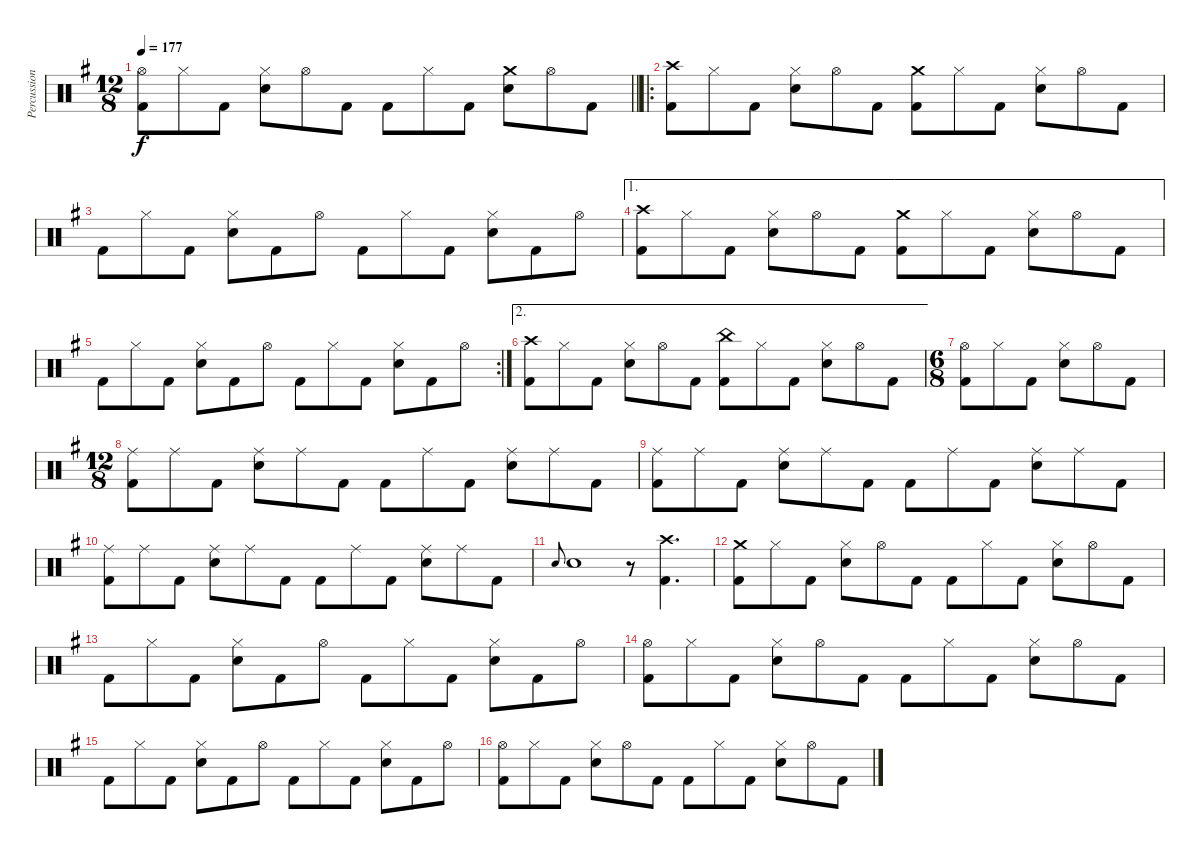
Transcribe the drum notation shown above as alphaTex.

\track ("Percussion" "Percussion") {instrument percussion}
\staff {score}
\articulation defaults
\ts (12 8)
\tempo 177
\clef neutral
\barLineRight lightlight
\ks g
("Hi-Hat (open)" "Kick (hit) 2").8{dy f} "Hi-Hat (closed)".8 "Kick (hit) 2".8 ("Hi-Hat (closed)" "Snare (hit) 2").8 "Hi-Hat (open)".8 "Kick (hit) 2".8 "Kick (hit) 2".8 "Hi-Hat (closed)".8 "Kick (hit) 2".8 ("Crash medium (hit)" "Snare (hit) 2").8 "Hi-Hat (open)".8 "Kick (hit) 2".8 |
\ro
("Crash high (hit)" "Kick (hit) 2").8 "Hi-Hat (closed)".8 "Kick (hit) 2".8 ("Hi-Hat (closed)" "Snare (hit) 2").8 "Hi-Hat (open)".8 "Kick (hit) 2".8 ("Crash medium (hit)" "Kick (hit) 2").8 "Hi-Hat (closed)".8 "Kick (hit) 2".8 ("Hi-Hat (closed)" "Snare (hit) 2").8 "Hi-Hat (open)".8 "Kick (hit) 2".8 |
"Kick (hit) 2".8 "Hi-Hat (closed)".8 "Kick (hit) 2".8 ("Hi-Hat (closed)" "Snare (hit) 2").8 "Kick (hit) 2".8 "Hi-Hat (open)".8 "Kick (hit) 2".8 "Hi-Hat (closed)".8 "Kick (hit) 2".8 ("Hi-Hat (closed)" "Snare (hit) 2").8 "Kick (hit) 2".8 "Hi-Hat (open)".8 |
\ae 1
("Crash high (hit)" "Kick (hit) 2").8 "Hi-Hat (closed)".8 "Kick (hit) 2".8 ("Hi-Hat (closed)" "Snare (hit) 2").8 "Hi-Hat (open)".8 "Kick (hit) 2".8 ("Crash medium (hit)" "Kick (hit) 2").8 "Hi-Hat (closed)".8 "Kick (hit) 2".8 ("Hi-Hat (closed)" "Snare (hit) 2").8 "Hi-Hat (open)".8 "Kick (hit) 2".8 |
\rc 2 "Kick (hit) 2".8 "Hi-Hat (closed)".8 "Kick (hit) 2".8
("Hi-Hat (closed)" "Snare (hit) 2").8 "Kick (hit) 2".8 "Hi-Hat (open)".8 "Kick (hit) 2".8 "Hi-Hat (closed)".8 "Kick (hit) 2".8 ("Hi-Hat (closed)" "Snare (hit) 2").8 "Kick (hit) 2".8 "Hi-Hat (open)".8 |
\ae 2
("Crash high (hit)" "Kick (hit) 2").8 "Hi-Hat (closed)".8 "Kick (hit) 2".8 ("Hi-Hat (closed)" "Snare (hit) 2").8 "Hi-Hat (open)".8 "Kick (hit) 2".8 ("China (hit)" "Kick (hit) 2").8 "Hi-Hat (closed)".8 "Kick (hit) 2".8 ("Hi-Hat (closed)" "Snare (hit) 2").8 "Hi-Hat (open)".8 "Kick (hit) 2".8 |
\ts (6 8)
("Hi-Hat (open)" "Kick (hit) 2").8 "Hi-Hat (closed)".8 "Kick (hit) 2".8 ("Hi-Hat (closed)" "Snare (hit) 2").8 "Hi-Hat (open)".8 "Kick (hit) 2".8 |
\ts (12 8)
("Ride (middle)" "Kick (hit) 2").8 "Ride (middle)".8 "Kick (hit) 2".8 ("Ride (middle)" "Snare (hit) 2").8 "Ride (middle)".8 "Kick (hit) 2".8 "Kick (hit) 2".8 "Ride (middle)".8 "Kick (hit) 2".8 ("Ride (middle)" "Snare (hit) 2").8 "Ride (middle)".8 "Kick (hit) 2".8 |
("Ride (middle)" "Kick (hit) 2").8 "Ride (middle)".8 "Kick (hit) 2".8 ("Ride (middle)" "Snare (hit) 2").8 "Ride (middle)".8 "Kick (hit) 2".8 "Kick (hit) 2".8 "Ride (middle)".8 "Kick (hit) 2".8 ("Ride (middle)" "Snare (hit) 2").8 "Ride (middle)".8 "Kick (hit) 2".8 |
("Ride (middle)" "Kick (hit) 2").8 "Ride (middle)".8 "Kick (hit) 2".8 ("Ride (middle)" "Snare (hit) 2").8 "Ride (middle)".8 "Kick (hit) 2".8 "Kick (hit) 2".8 "Ride (middle)".8 "Kick (hit) 2".8 ("Ride (middle)" "Snare (hit) 2").8 "Ride (middle)".8 "Kick (hit) 2".8 |
"Snare (hit) 2".8{gr onbeat} "Snare (hit) 2".1 r.8 ("Crash high (hit)" "Kick (hit) 2").4{d} |
("Crash medium (hit)" "Kick (hit) 2").8 "Hi-Hat (closed)".8 "Kick (hit) 2".8 ("Hi-Hat (closed)" "Snare (hit) 2").8 "Hi-Hat (open)".8 "Kick (hit) 2".8 "Kick (hit) 2".8 "Hi-Hat (closed)".8 "Kick (hit) 2".8 ("Hi-Hat (closed)" "Snare (hit) 2").8 "Hi-Hat (open)".8 "Kick (hit) 2".8 |
"Kick (hit) 2".8 "Hi-Hat (closed)".8 "Kick (hit) 2".8 ("Hi-Hat (closed)" "Snare (hit) 2").8 "Kick (hit) 2".8 "Hi-Hat (open)".8 "Kick (hit) 2".8 "Hi-Hat (closed)".8 "Kick (hit) 2".8 ("Hi-Hat (closed)" "Snare (hit) 2").8 "Kick (hit) 2".8 "Hi-Hat (open)".8 |
("Hi-Hat (open)" "Kick (hit) 2").8 "Hi-Hat (closed)".8 "Kick (hit) 2".8 ("Hi-Hat (closed)" "Snare (hit) 2").8 "Hi-Hat (open)".8 "Kick (hit) 2".8 "Kick (hit) 2".8 "Hi-Hat (closed)".8 "Kick (hit) 2".8 ("Hi-Hat (closed)" "Snare (hit) 2").8 "Hi-Hat (open)".8 "Kick (hit) 2".8 |
"Kick (hit) 2".8 "Hi-Hat (closed)".8 "Kick (hit) 2".8 ("Hi-Hat (closed)" "Snare (hit) 2").8 "Kick (hit) 2".8 "Hi-Hat (open)".8 "Kick (hit) 2".8 "Hi-Hat (closed)".8 "Kick (hit) 2".8 ("Hi-Hat (closed)" "Snare (hit) 2").8 "Kick (hit) 2".8 "Hi-Hat (open)".8 |
("Hi-Hat (open)" "Kick (hit) 2").8 "Hi-Hat (closed)".8 "Kick (hit) 2".8 ("Hi-Hat (closed)" "Snare (hit) 2").8 "Hi-Hat (open)".8 "Kick (hit) 2".8 "Kick (hit) 2".8 "Hi-Hat (closed)".8 "Kick (hit) 2".8 ("Hi-Hat (closed)" "Snare (hit) 2").8 "Hi-Hat (open)".8 "Kick (hit) 2".8
